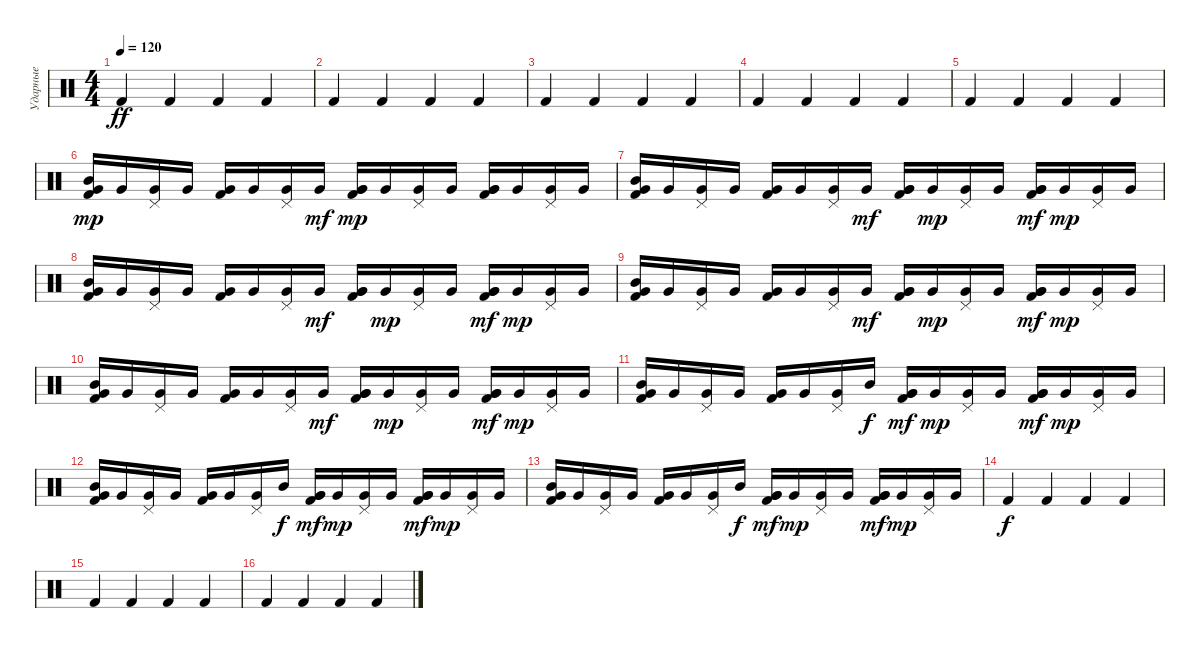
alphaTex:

\track ("Ударные" "Ударные") {instrument percussion}
\staff {score}
\articulation defaults
\ts (4 4)
\tempo 120
\clef neutral
\ks c "Kick (hit) 2".4{dy ff} "Kick (hit) 2".4 "Kick (hit) 2".4 "Kick (hit) 2".4
|
"Kick (hit) 2".4 "Kick (hit) 2".4 "Kick (hit) 2".4 "Kick (hit) 2".4 |
"Kick (hit) 2".4 "Kick (hit) 2".4 "Kick (hit) 2".4 "Kick (hit) 2".4 |
"Kick (hit) 2".4 "Kick (hit) 2".4 "Kick (hit) 2".4 "Kick (hit) 2".4 |
"Kick (hit) 2".4 "Kick (hit) 2".4 "Kick (hit) 2".4 "Kick (hit) 2".4 |
("Mid Tom (hit)" "Very Low Tom (hit)" "Kick (hit) 2").16{dy mp} "Very Low Tom (hit)".16 ("Very Low Tom (hit)" "Pedal Hi-Hat (hit)").16 "Very Low Tom (hit)".16 ("Very Low Tom (hit)" "Kick (hit) 2").16 "Very Low Tom (hit)".16 ("Very Low Tom (hit)" "Pedal Hi-Hat (hit)").16 "Very Low Tom (hit)".16{dy mf} ("Very Low Tom (hit)" "Very Low Tom (hit)" "Kick (hit) 2").16{dy mp} "Very Low Tom (hit)".16 ("Very Low Tom (hit)" "Pedal Hi-Hat (hit)").16 "Very Low Tom (hit)".16 ("Very Low Tom (hit)" "Very Low Tom (hit)" "Kick (hit) 2").16 "Very Low Tom (hit)".16 ("Very Low Tom (hit)" "Pedal Hi-Hat (hit)").16 "Very Low Tom (hit)".16 |
("Mid Tom (hit)" "Very Low Tom (hit)" "Kick (hit) 2").16 "Very Low Tom (hit)".16 ("Very Low Tom (hit)" "Pedal Hi-Hat (hit)").16 "Very Low Tom (hit)".16 ("Very Low Tom (hit)" "Kick (hit) 2").16 "Very Low Tom (hit)".16 ("Very Low Tom (hit)" "Pedal Hi-Hat (hit)").16 "Very Low Tom (hit)".16{dy mf} ("Very Low Tom (hit)" "Very Low Tom (hit)" "Kick (hit) 2").16 "Very Low Tom (hit)".16{dy mp} ("Very Low Tom (hit)" "Pedal Hi-Hat (hit)").16 "Very Low Tom (hit)".16 ("Very Low Tom (hit)" "Very Low Tom (hit)" "Kick (hit) 2").16{dy mf} "Very Low Tom (hit)".16{dy mp} ("Very Low Tom (hit)" "Pedal Hi-Hat (hit)").16 "Very Low Tom (hit)".16 |
("Mid Tom (hit)" "Very Low Tom (hit)" "Kick (hit) 2").16 "Very Low Tom (hit)".16 ("Very Low Tom (hit)" "Pedal Hi-Hat (hit)").16 "Very Low Tom (hit)".16 ("Very Low Tom (hit)" "Kick (hit) 2").16 "Very Low Tom (hit)".16 ("Very Low Tom (hit)" "Pedal Hi-Hat (hit)").16 "Very Low Tom (hit)".16{dy mf} ("Very Low Tom (hit)" "Very Low Tom (hit)" "Kick (hit) 2").16 "Very Low Tom (hit)".16{dy mp} ("Very Low Tom (hit)" "Pedal Hi-Hat (hit)").16 "Very Low Tom (hit)".16 ("Very Low Tom (hit)" "Very Low Tom (hit)" "Kick (hit) 2").16{dy mf} "Very Low Tom (hit)".16{dy mp} ("Very Low Tom (hit)" "Pedal Hi-Hat (hit)").16 "Very Low Tom (hit)".16 |
("Mid Tom (hit)" "Very Low Tom (hit)" "Kick (hit) 2").16 "Very Low Tom (hit)".16 ("Very Low Tom (hit)" "Pedal Hi-Hat (hit)").16 "Very Low Tom (hit)".16 ("Very Low Tom (hit)" "Kick (hit) 2").16 "Very Low Tom (hit)".16 ("Very Low Tom (hit)" "Pedal Hi-Hat (hit)").16 "Very Low Tom (hit)".16{dy mf} ("Very Low Tom (hit)" "Very Low Tom (hit)" "Kick (hit) 2").16 "Very Low Tom (hit)".16{dy mp} ("Very Low Tom (hit)" "Pedal Hi-Hat (hit)").16 "Very Low Tom (hit)".16 ("Very Low Tom (hit)" "Very Low Tom (hit)" "Kick (hit) 2").16{dy mf} "Very Low Tom (hit)".16{dy mp} ("Very Low Tom (hit)" "Pedal Hi-Hat (hit)").16 "Very Low Tom (hit)".16 |
("Mid Tom (hit)" "Very Low Tom (hit)" "Kick (hit) 2").16 "Very Low Tom (hit)".16 ("Very Low Tom (hit)" "Pedal Hi-Hat (hit)").16 "Very Low Tom (hit)".16 ("Very Low Tom (hit)" "Kick (hit) 2").16 "Very Low Tom (hit)".16 ("Very Low Tom (hit)" "Pedal Hi-Hat (hit)").16 "Very Low Tom (hit)".16{dy mf} ("Very Low Tom (hit)" "Very Low Tom (hit)" "Kick (hit) 2").16 "Very Low Tom (hit)".16{dy mp} ("Very Low Tom (hit)" "Pedal Hi-Hat (hit)").16 "Very Low Tom (hit)".16 ("Very Low Tom (hit)" "Very Low Tom (hit)" "Kick (hit) 2").16{dy mf} "Very Low Tom (hit)".16{dy mp} ("Very Low Tom (hit)" "Pedal Hi-Hat (hit)").16 "Very Low Tom (hit)".16 |
("Mid Tom (hit)" "Very Low Tom (hit)" "Kick (hit) 2").16 "Very Low Tom (hit)".16 ("Very Low Tom (hit)" "Pedal Hi-Hat (hit)").16 "Very Low Tom (hit)".16 ("Very Low Tom (hit)" "Kick (hit) 2").16 "Very Low Tom (hit)".16 ("Very Low Tom (hit)" "Pedal Hi-Hat (hit)").16 "Mid Tom (hit)".16{dy f} ("Very Low Tom (hit)" "Very Low Tom (hit)" "Kick (hit) 2").16{dy mf} "Very Low Tom (hit)".16{dy mp} ("Very Low Tom (hit)" "Pedal Hi-Hat (hit)").16 "Very Low Tom (hit)".16 ("Very Low Tom (hit)" "Very Low Tom (hit)" "Kick (hit) 2").16{dy mf} "Very Low Tom (hit)".16{dy mp} ("Very Low Tom (hit)" "Pedal Hi-Hat (hit)").16 "Very Low Tom (hit)".16 |
("Mid Tom (hit)" "Very Low Tom (hit)" "Kick (hit) 2").16 "Very Low Tom (hit)".16 ("Very Low Tom (hit)" "Pedal Hi-Hat (hit)").16 "Very Low Tom (hit)".16 ("Very Low Tom (hit)" "Kick (hit) 2").16 "Very Low Tom (hit)".16 ("Very Low Tom (hit)" "Pedal Hi-Hat (hit)").16 "Mid Tom (hit)".16{dy f} ("Very Low Tom (hit)" "Very Low Tom (hit)" "Kick (hit) 2").16{dy mf} "Very Low Tom (hit)".16{dy mp} ("Very Low Tom (hit)" "Pedal Hi-Hat (hit)").16 "Very Low Tom (hit)".16 ("Very Low Tom (hit)" "Very Low Tom (hit)" "Kick (hit) 2").16{dy mf} "Very Low Tom (hit)".16{dy mp} ("Very Low Tom (hit)" "Pedal Hi-Hat (hit)").16 "Very Low Tom (hit)".16 |
("Mid Tom (hit)" "Very Low Tom (hit)" "Kick (hit) 2").16 "Very Low Tom (hit)".16 ("Very Low Tom (hit)" "Pedal Hi-Hat (hit)").16 "Very Low Tom (hit)".16 ("Very Low Tom (hit)" "Kick (hit) 2").16 "Very Low Tom (hit)".16 ("Very Low Tom (hit)" "Pedal Hi-Hat (hit)").16 "Mid Tom (hit)".16{dy f} ("Very Low Tom (hit)" "Very Low Tom (hit)" "Kick (hit) 2").16{dy mf} "Very Low Tom (hit)".16{dy mp} ("Very Low Tom (hit)" "Pedal Hi-Hat (hit)").16 "Very Low Tom (hit)".16 ("Very Low Tom (hit)" "Very Low Tom (hit)" "Kick (hit) 2").16{dy mf} "Very Low Tom (hit)".16{dy mp} ("Very Low Tom (hit)" "Pedal Hi-Hat (hit)").16 "Very Low Tom (hit)".16 |
"Kick (hit) 2".4{dy f} "Kick (hit) 2".4 "Kick (hit) 2".4 "Kick (hit) 2".4 |
"Kick (hit) 2".4 "Kick (hit) 2".4 "Kick (hit) 2".4 "Kick (hit) 2".4 |
"Kick (hit) 2".4 "Kick (hit) 2".4 "Kick (hit) 2".4 "Kick (hit) 2".4
